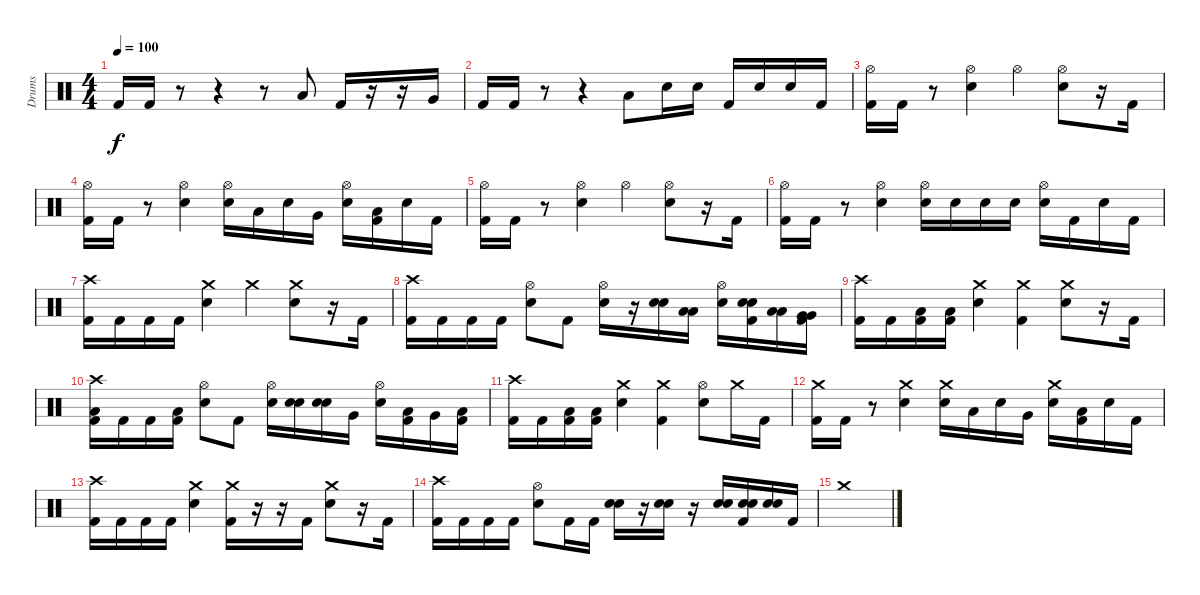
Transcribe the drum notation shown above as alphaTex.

\track ("Drums" "Drums") {instrument percussion}
\staff {score}
\articulation defaults
\ts (4 4)
\tempo 100
\clef neutral
\ks c "Kick (hit) 2".16{dy f} "Kick (hit) 2".16
r.8 r.4 r.8 "Low Floor Tom (hit)".8 "Kick (hit) 2".16 r.16 r.16 "Very Low Tom (hit)".16 |
"Kick (hit) 2".16 "Kick (hit) 2".16 r.8 r.4 "Low Floor Tom (hit)".8 "Electric Snare (hit)".16 "Electric Snare (hit)".16 "Kick (hit) 2".16 "Electric Snare (hit)".16 "Electric Snare (hit)".16 "Kick (hit) 2".16 |
("Hi-Hat (open)" "Kick (hit) 2").16 "Kick (hit) 2".16 r.8 ("Hi-Hat (open)" "Electric Snare (hit)").4 "Hi-Hat (open)".4 ("Hi-Hat (open)" "Electric Snare (hit)").8 r.16 "Kick (hit) 2".16 |
("Hi-Hat (open)" "Kick (hit) 2").16 "Kick (hit) 2".16 r.8 ("Hi-Hat (open)" "Electric Snare (hit)").4 ("Hi-Hat (open)" "Electric Snare (hit)").16 "Low Floor Tom (hit)".16 "Electric Snare (hit)".16 "Very Low Tom (hit)".16 ("Hi-Hat (open)" "Electric Snare (hit)").16 ("Low Tom (hit)" "Kick (hit) 2").16 "Electric Snare (hit)".16 "Kick (hit) 2".16 |
("Hi-Hat (open)" "Kick (hit) 2").16 "Kick (hit) 2".16 r.8 ("Hi-Hat (open)" "Electric Snare (hit)").4 "Hi-Hat (open)".4 ("Hi-Hat (open)" "Electric Snare (hit)").8 r.16 "Kick (hit) 2".16 |
("Hi-Hat (open)" "Kick (hit) 2").16 "Kick (hit) 2".16 r.8 ("Hi-Hat (open)" "Electric Snare (hit)").4 ("Hi-Hat (open)" "Electric Snare (hit)").16 "Electric Snare (hit)".16 "Electric Snare (hit)".16 "Electric Snare (hit)".16 ("Hi-Hat (open)" "Electric Snare (hit)").16 "Kick (hit) 2".16 "Electric Snare (hit)".16 "Kick (hit) 2".16 |
("Crash high (hit)" "Kick (hit) 2").16 "Kick (hit) 2".16 "Kick (hit) 2".16 "Kick (hit) 2".16 ("Crash medium (hit)" "Electric Snare (hit)").4 "Crash medium (hit)".4 ("Crash medium (hit)" "Electric Snare (hit)").8 r.16 "Kick (hit) 2".16 |
("Crash high (hit)" "Kick (hit) 2").16 "Kick (hit) 2".16 "Kick (hit) 2".16 "Kick (hit) 2".16 ("Hi-Hat (open)" "Electric Snare (hit)").8 "Kick (hit) 2".8 ("Hi-Hat (open)" "Electric Snare (hit)").16 r.16 ("Electric Snare (hit)" "Electric Snare (hit)").16 ("Low Tom (hit)" "Low Tom (hit)").16 ("Hi-Hat (open)" "Electric Snare (hit)").16 ("Electric Snare (hit)" "Electric Snare (hit)" "Kick (hit) 2").16 ("Low Tom (hit)" "Low Tom (hit)").16 ("Very Low Tom (hit)" "Very Low Tom (hit)" "Kick (hit) 2").16 |
("Crash high (hit)" "Kick (hit) 2").16 "Kick (hit) 2".16 ("Low Floor Tom (hit)" "Kick (hit) 2").16 ("Low Floor Tom (hit)" "Kick (hit) 2").16 ("Crash medium (hit)" "Electric Snare (hit)").4 ("Crash medium (hit)" "Kick (hit) 2").4 ("Crash medium (hit)" "Electric Snare (hit)").8 r.16 "Kick (hit) 2".16 |
("Crash high (hit)" "Low Floor Tom (hit)" "Kick (hit) 2").16 "Kick (hit) 2".16 "Kick (hit) 2".16 ("Low Floor Tom (hit)" "Kick (hit) 2").16 ("Hi-Hat (open)" "Electric Snare (hit)").8 "Kick (hit) 2".8 ("Hi-Hat (open)" "Electric Snare (hit)").16 ("Electric Snare (hit)" "Electric Snare (hit)").16 ("Electric Snare (hit)" "Electric Snare (hit)").16 "Very Low Tom (hit)".16 ("Hi-Hat (open)" "Electric Snare (hit)").16 ("Low Floor Tom (hit)" "Kick (hit) 2").16 "Very Low Tom (hit)".16 ("Low Tom (hit)" "Kick (hit) 2").16 |
("Crash high (hit)" "Kick (hit) 2").16 "Kick (hit) 2".16 ("Low Floor Tom (hit)" "Kick (hit) 2").16 ("Low Floor Tom (hit)" "Kick (hit) 2").16 ("Crash medium (hit)" "Electric Snare (hit)").4 ("Crash medium (hit)" "Kick (hit) 2").4 ("Hi-Hat (open)" "Electric Snare (hit)").8 "Crash medium (hit)".16 "Kick (hit) 2".16 |
("Crash medium (hit)" "Kick (hit) 2").16 "Kick (hit) 2".16 r.8 ("Crash medium (hit)" "Electric Snare (hit)").4 ("Crash medium (hit)" "Electric Snare (hit)").16 "Low Floor Tom (hit)".16 "Electric Snare (hit)".16 "Very Low Tom (hit)".16 ("Crash medium (hit)" "Electric Snare (hit)").16 ("Low Tom (hit)" "Kick (hit) 2").16 "Electric Snare (hit)".16 "Kick (hit) 2".16 |
("Crash high (hit)" "Kick (hit) 2").16 "Kick (hit) 2".16 "Kick (hit) 2".16 "Kick (hit) 2".16 ("Crash medium (hit)" "Electric Snare (hit)").4 ("Crash medium (hit)" "Kick (hit) 2").16 r.16 r.16 "Kick (hit) 2".16 ("Crash medium (hit)" "Electric Snare (hit)").8 r.16 "Kick (hit) 2".16 |
("Crash high (hit)" "Kick (hit) 2").16 "Kick (hit) 2".16 "Kick (hit) 2".16 "Kick (hit) 2".16 ("Hi-Hat (open)" "Electric Snare (hit)").8 "Kick (hit) 2".16 "Kick (hit) 2".16 ("Electric Snare (hit)" "Electric Snare (hit)").16 r.16 ("Electric Snare (hit)" "Electric Snare (hit)").16 r.16 ("Electric Snare (hit)" "Electric Snare (hit)").16 ("Electric Snare (hit)" "Electric Snare (hit)" "Kick (hit) 2").16 ("Electric Snare (hit)" "Electric Snare (hit)").16 "Kick (hit) 2".16 |
"Crash medium (hit)".1
